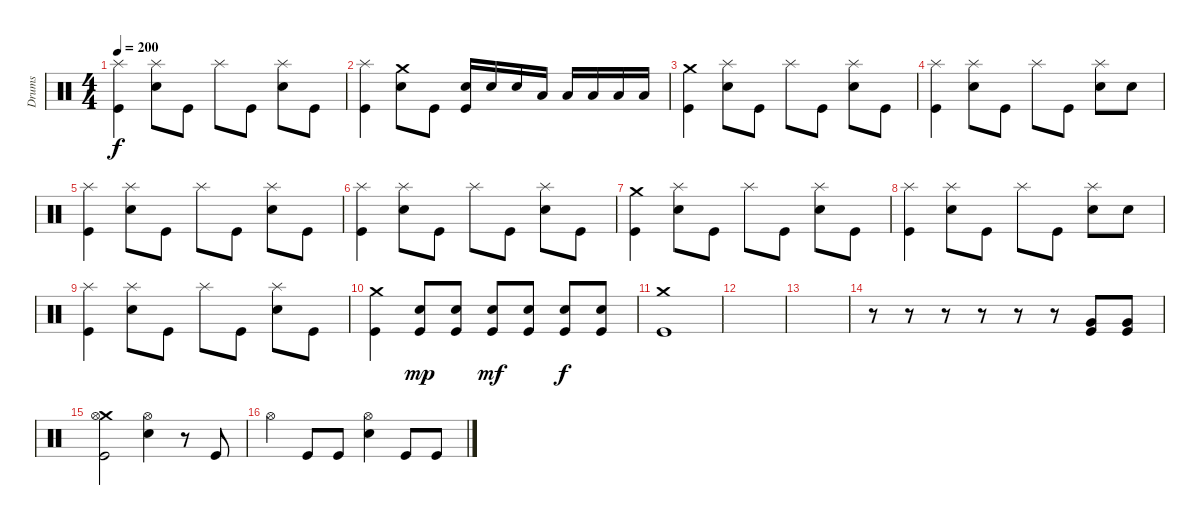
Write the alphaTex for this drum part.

\track ("Drums" "Drums") {instrument percussion}
\staff {score}
\articulation defaults
\ts (4 4)
\tempo 200
\clef neutral
\ks c
("Splash (hit)" "Kick (hit)").4{dy f} ("Splash (hit)" "Electric Snare (hit)").8 "Kick (hit)".8 "Splash (hit)".8 "Kick (hit)".8 ("Splash (hit)" "Electric Snare (hit)").8 "Kick (hit)".8 |
("Splash (hit)" "Kick (hit)").4 ("Crash medium (hit)" "Electric Snare (hit)").8 "Kick (hit)".8 ("Electric Snare (hit)" "Kick (hit)").16 "Electric Snare (hit)".16 "Electric Snare (hit)".16 "Low Tom (hit)".16 "Low Tom (hit)".16 "Low Tom (hit)".16 "Low Tom (hit)".16 "Low Tom (hit)".16 |
("Crash medium (hit)" "Kick (hit)").4 ("Splash (hit)" "Electric Snare (hit)").8 "Kick (hit)".8 "Splash (hit)".8 "Kick (hit)".8 ("Splash (hit)" "Electric Snare (hit)").8 "Kick (hit)".8 |
("Splash (hit)" "Kick (hit)").4 ("Splash (hit)" "Electric Snare (hit)").8 "Kick (hit)".8 "Splash (hit)".8 "Kick (hit)".8 ("Splash (hit)" "Electric Snare (hit)").8 "Electric Snare (hit)".8 |
("Splash (hit)" "Kick (hit)").4 ("Splash (hit)" "Electric Snare (hit)").8 "Kick (hit)".8 "Splash (hit)".8 "Kick (hit)".8 ("Splash (hit)" "Electric Snare (hit)").8 "Kick (hit)".8 |
("Splash (hit)" "Kick (hit)").4 ("Splash (hit)" "Electric Snare (hit)").8 "Kick (hit)".8 "Splash (hit)".8 "Kick (hit)".8 ("Splash (hit)" "Electric Snare (hit)").8 "Kick (hit)".8 |
("Crash medium (hit)" "Kick (hit)").4 ("Splash (hit)" "Electric Snare (hit)").8 "Kick (hit)".8 "Splash (hit)".8 "Kick (hit)".8 ("Splash (hit)" "Electric Snare (hit)").8 "Kick (hit)".8 |
("Splash (hit)" "Kick (hit)").4 ("Splash (hit)" "Electric Snare (hit)").8 "Kick (hit)".8 "Splash (hit)".8 "Kick (hit)".8 ("Splash (hit)" "Electric Snare (hit)").8 "Electric Snare (hit)".8 |
("Splash (hit)" "Kick (hit)").4 ("Splash (hit)" "Electric Snare (hit)").8 "Kick (hit)".8 "Splash (hit)".8 "Kick (hit)".8 ("Splash (hit)" "Electric Snare (hit)").8 "Kick (hit)".8 |
("Crash medium (hit)" "Kick (hit)").4 ("Electric Snare (hit)" "Kick (hit)").8{dy mp} ("Electric Snare (hit)" "Kick (hit)").8 ("Electric Snare (hit)" "Kick (hit)").8{dy mf} ("Electric Snare (hit)" "Kick (hit)").8 ("Electric Snare (hit)" "Kick (hit)").8{dy f} ("Electric Snare (hit)" "Kick (hit)").8 |
("Crash medium (hit)" "Kick (hit)").1 |
|
|
r.8 r.8 r.8 r.8 r.8 r.8 ("Very Low Tom (hit)" "Kick (hit)").8 ("Very Low Tom (hit)" "Kick (hit)").8 |
("Crash medium (hit)" "Hi-Hat (open)" "Kick (hit)").2 ("Hi-Hat (open)" "Electric Snare (hit)").4 r.8 "Kick (hit)".8 |
"Hi-Hat (open)".4 "Kick (hit)".8 "Kick (hit)".8 ("Hi-Hat (open)" "Electric Snare (hit)").4 "Kick (hit)".8 "Kick (hit)".8
